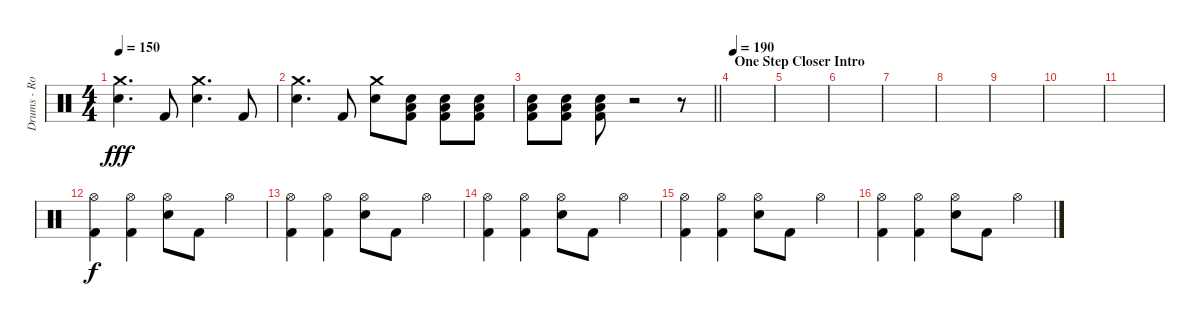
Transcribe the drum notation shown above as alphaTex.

\track ("Drums - Rob Bourdon" "Drums - Ro") {instrument percussion}
\staff {score}
\articulation defaults
\ts (4 4)
\tempo 150
\clef neutral
\ks c
("Crash medium (hit)" "Snare (hit) 2").4{d dy fff} "Kick (hit) 2".8 ("Crash medium (hit)" "Snare (hit) 2").4{d} "Kick (hit) 2".8 |
("Crash medium (hit)" "Snare (hit) 2").4{d} "Kick (hit) 2".8 ("Crash medium (hit)" "Snare (hit) 2").8 ("Snare (hit) 2" "Low Tom (hit)" "Kick (hit) 2").8 ("Snare (hit) 2" "Low Tom (hit)" "Kick (hit) 2").8 ("Snare (hit) 2" "Low Tom (hit)" "Kick (hit) 2").8 |
\barLineRight lightlight
("Snare (hit) 2" "Low Tom (hit)" "Kick (hit) 2").8 ("Snare (hit) 2" "Low Tom (hit)" "Kick (hit) 2").8 ("Snare (hit) 2" "Low Tom (hit)" "Kick (hit) 2").8 r.2 r.8 |
\section ("" "One Step Closer Intro")
\tempo 190
|
|
|
|
|
|
|
|
("Hi-Hat (open)" "Kick (hit) 2").4{dy f} ("Hi-Hat (open)" "Kick (hit) 2").4 ("Hi-Hat (open)" "Snare (hit) 2").8 "Kick (hit) 2".8 "Hi-Hat (open)".4 |
("Hi-Hat (open)" "Kick (hit) 2").4 ("Hi-Hat (open)" "Kick (hit) 2").4 ("Hi-Hat (open)" "Snare (hit) 2").8 "Kick (hit) 2".8 "Hi-Hat (open)".4 |
("Hi-Hat (open)" "Kick (hit) 2").4 ("Hi-Hat (open)" "Kick (hit) 2").4 ("Hi-Hat (open)" "Snare (hit) 2").8 "Kick (hit) 2".8 "Hi-Hat (open)".4 |
("Hi-Hat (open)" "Kick (hit) 2").4 ("Hi-Hat (open)" "Kick (hit) 2").4 ("Hi-Hat (open)" "Snare (hit) 2").8 "Kick (hit) 2".8 "Hi-Hat (open)".4 |
("Hi-Hat (open)" "Kick (hit) 2").4 ("Hi-Hat (open)" "Kick (hit) 2").4 ("Hi-Hat (open)" "Snare (hit) 2").8 "Kick (hit) 2".8 "Hi-Hat (open)".4
